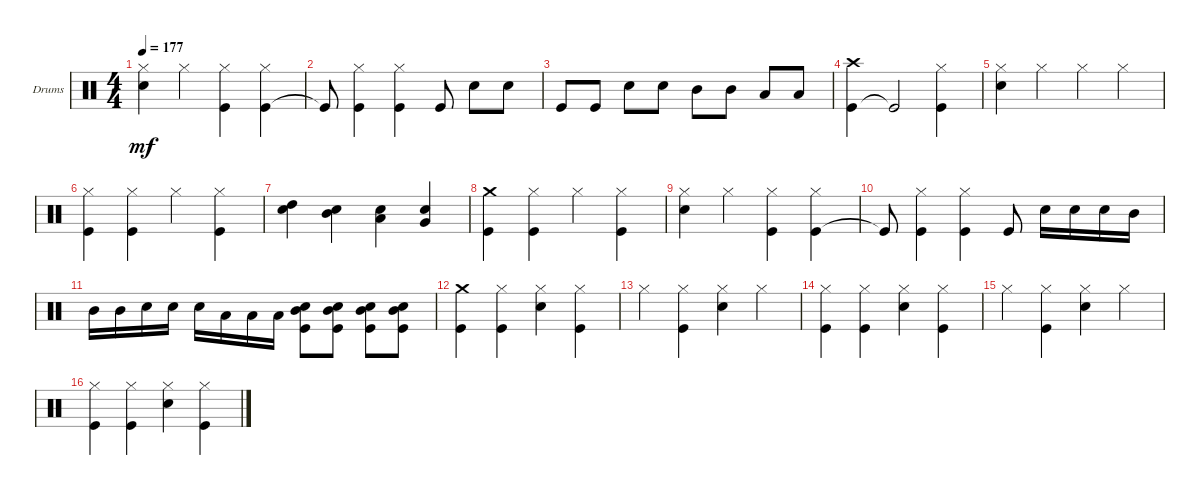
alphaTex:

\defaultSystemsLayout 4
\bracketExtendMode groupsimilarinstruments
\firstSystemTrackNameOrientation horizontal
\otherSystemsTrackNameOrientation horizontal
\track ("Johnny Kelly" "Drums") {instrument percussion}
\staff {score}
\articulation defaults
\ts (4 4)
\tempo 177
\clef neutral
\ks c
("Snare (hit) 2" "Hi-Hat (closed)").4{dy mf} "Hi-Hat (closed)".4 ("Kick (hit)" "Hi-Hat (closed)").4 ("Kick (hit)" "Hi-Hat (closed)").4 |
"Kick (hit)"{t}.8 ("Kick (hit)" "Hi-Hat (closed)").4 ("Kick (hit)" "Hi-Hat (closed)").4 "Kick (hit)".8 "Snare (hit) 2".8 "Snare (hit) 2".8 |
"Kick (hit)".8 "Kick (hit)".8 "Snare (hit) 2".8 "Snare (hit) 2".8 "Mid Tom (hit)".8 "Mid Tom (hit)".8 "Low Tom (hit)".8 "Low Tom (hit)".8 |
("Kick (hit)" "Crash high (hit)").4 "Kick (hit)"{t}.2 ("Kick (hit)" "Hi-Hat (closed)").4 |
("Snare (hit) 2" "Hi-Hat (closed)").4 "Hi-Hat (closed)".4 "Hi-Hat (closed)".4 "Hi-Hat (closed)".4 |
("Kick (hit)" "Hi-Hat (closed)").4 ("Kick (hit)" "Hi-Hat (closed)").4 "Hi-Hat (closed)".4 ("Kick (hit)" "Hi-Hat (closed)").4 |
("Snare (hit) 2" "High Tom (hit)").4 ("Snare (hit) 2" "Mid Tom (hit)").4 ("Snare (hit) 2" "Low Tom (hit)").4 ("Snare (hit) 2" "Very Low Tom (hit)").4 |
("Kick (hit)" "Crash medium (hit)").4 ("Kick (hit)" "Hi-Hat (closed)").4 "Hi-Hat (closed)".4 ("Kick (hit)" "Hi-Hat (closed)").4 |
("Snare (hit) 2" "Hi-Hat (closed)").4 "Hi-Hat (closed)".4 ("Kick (hit)" "Hi-Hat (closed)").4 ("Kick (hit)" "Hi-Hat (closed)").4 |
"Kick (hit)"{t}.8 ("Kick (hit)" "Hi-Hat (closed)").4 ("Kick (hit)" "Hi-Hat (closed)").4 "Kick (hit)".8 "Snare (hit) 2".16 "Snare (hit) 2".16 "Snare (hit) 2".16 "Mid Tom (hit)".16 |
"Mid Tom (hit)".16 "Mid Tom (hit)".16 "Snare (hit) 2".16 "Snare (hit) 2".16 "Snare (hit) 2".16 "Low Tom (hit)".16 "Low Tom (hit)".16 "Low Tom (hit)".16 ("Snare (hit) 2" "Mid Tom (hit)" "Kick (hit)").8 ("Snare (hit) 2" "Mid Tom (hit)" "Kick (hit)").8 ("Snare (hit) 2" "Mid Tom (hit)" "Kick (hit)").8 ("Snare (hit) 2" "Mid Tom (hit)" "Kick (hit)").8 |
("Kick (hit)" "Crash medium (hit)").4 ("Kick (hit)" "Hi-Hat (closed)").4 ("Snare (hit) 2" "Hi-Hat (closed)").4 ("Kick (hit)" "Hi-Hat (closed)").4 |
"Hi-Hat (closed)".4 ("Kick (hit)" "Hi-Hat (closed)").4 ("Snare (hit) 2" "Hi-Hat (closed)").4 "Hi-Hat (closed)".4 |
("Kick (hit)" "Hi-Hat (closed)").4 ("Kick (hit)" "Hi-Hat (closed)").4 ("Snare (hit) 2" "Hi-Hat (closed)").4 ("Kick (hit)" "Hi-Hat (closed)").4 |
"Hi-Hat (closed)".4 ("Kick (hit)" "Hi-Hat (closed)").4 ("Snare (hit) 2" "Hi-Hat (closed)").4 "Hi-Hat (closed)".4 |
("Kick (hit)" "Hi-Hat (closed)").4 ("Kick (hit)" "Hi-Hat (closed)").4 ("Snare (hit) 2" "Hi-Hat (closed)").4 ("Kick (hit)" "Hi-Hat (closed)").4
